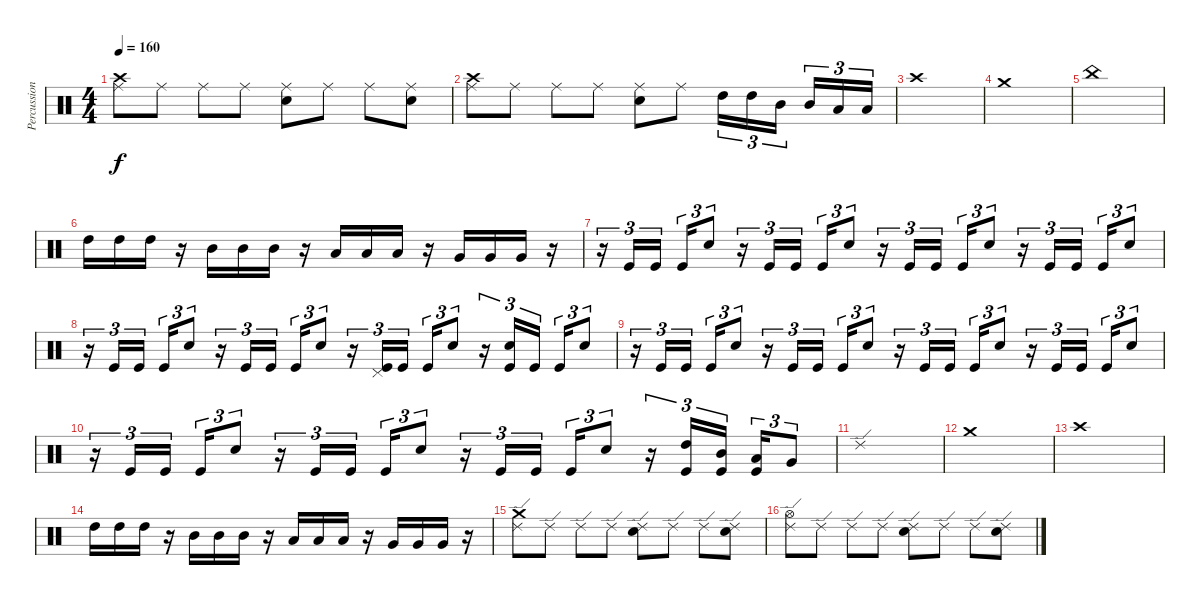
\track ("Percussion" "Percussion") {instrument percussion}
\staff {score}
\articulation defaults
\ts (4 4)
\tempo 160
\clef neutral
\ks c
("Crash high (hit)" "Ride (middle)").8{dy f} "Ride (middle)".8 "Ride (middle)".8 "Ride (middle)".8 ("Snare (hit) 2" "Ride (middle)").8 "Ride (middle)".8 "Ride (middle)".8 ("Snare (hit) 2" "Ride (middle)").8 |
("Crash high (hit)" "Ride (middle)").8 "Ride (middle)".8 "Ride (middle)".8 "Ride (middle)".8 ("Snare (hit) 2" "Ride (middle)").8 "Ride (middle)".8 "High Tom (hit)".16{tu (3 2)} "High Tom (hit)".16{tu (3 2)} "Mid Tom (hit)".16{tu (3 2)} "Mid Tom (hit)".16{tu (3 2)} "Low Tom (hit)".16{tu (3 2)} "Low Tom (hit)".16{tu (3 2)} |
"Crash high (hit)".1 |
"Crash medium (hit)".1 |
"China (hit)".1 |
"High Tom (hit)".16 "High Tom (hit)".16 "High Tom (hit)".16 r.16 "Mid Tom (hit)".16 "Mid Tom (hit)".16 "Mid Tom (hit)".16 r.16 "Low Tom (hit)".16 "Low Tom (hit)".16 "Low Tom (hit)".16 r.16 "Very Low Tom (hit)".16 "Very Low Tom (hit)".16 "Very Low Tom (hit)".16 r.16 |
r.16{tu (3 2)} "Kick (hit)".16{tu (3 2)} "Kick (hit)".16{tu (3 2)} "Kick (hit)".16{tu (3 2)} "Snare (hit) 2".8{tu (3 2)} r.16{tu (3 2)} "Kick (hit)".16{tu (3 2)} "Kick (hit)".16{tu (3 2)} "Kick (hit)".16{tu (3 2)} "Snare (hit) 2".8{tu (3 2)} r.16{tu (3 2)} "Kick (hit)".16{tu (3 2)} "Kick (hit)".16{tu (3 2)} "Kick (hit)".16{tu (3 2)} "Snare (hit) 2".8{tu (3 2)} r.16{tu (3 2)} "Kick (hit)".16{tu (3 2)} "Kick (hit)".16{tu (3 2)} "Kick (hit)".16{tu (3 2)} "Snare (hit) 2".8{tu (3 2)} |
r.16{tu (3 2)} "Kick (hit)".16{tu (3 2)} "Kick (hit)".16{tu (3 2)} "Kick (hit)".16{tu (3 2)} "Snare (hit) 2".8{tu (3 2)} r.16{tu (3 2)} "Kick (hit)".16{tu (3 2)} "Kick (hit)".16{tu (3 2)} "Kick (hit)".16{tu (3 2)} "Snare (hit) 2".8{tu (3 2)} r.16{tu (3 2)} ("Pedal Hi-Hat (hit)" "Kick (hit)").16{tu (3 2)} "Kick (hit)".16{tu (3 2)} "Kick (hit)".16{tu (3 2)} "Snare (hit) 2".8{tu (3 2)} r.16{tu (3 2)} ("Snare (hit) 2" "Kick (hit)").16{tu (3 2)} "Kick (hit)".16{tu (3 2)} "Kick (hit)".16{tu (3 2)} "Snare (hit) 2".8{tu (3 2)} |
r.16{tu (3 2)} "Kick (hit)".16{tu (3 2)} "Kick (hit)".16{tu (3 2)} "Kick (hit)".16{tu (3 2)} "Snare (hit) 2".8{tu (3 2)} r.16{tu (3 2)} "Kick (hit)".16{tu (3 2)} "Kick (hit)".16{tu (3 2)} "Kick (hit)".16{tu (3 2)} "Snare (hit) 2".8{tu (3 2)} r.16{tu (3 2)} "Kick (hit)".16{tu (3 2)} "Kick (hit)".16{tu (3 2)} "Kick (hit)".16{tu (3 2)} "Snare (hit) 2".8{tu (3 2)} r.16{tu (3 2)} "Kick (hit)".16{tu (3 2)} "Kick (hit)".16{tu (3 2)} "Kick (hit)".16{tu (3 2)} "Snare (hit) 2".8{tu (3 2)} |
r.16{tu (3 2)} "Kick (hit)".16{tu (3 2)} "Kick (hit)".16{tu (3 2)} "Kick (hit)".16{tu (3 2)} "Snare (hit) 2".8{tu (3 2)} r.16{tu (3 2)} "Kick (hit)".16{tu (3 2)} "Kick (hit)".16{tu (3 2)} "Kick (hit)".16{tu (3 2)} "Snare (hit) 2".8{tu (3 2)} r.16{tu (3 2)} "Kick (hit)".16{tu (3 2)} "Kick (hit)".16{tu (3 2)} "Kick (hit)".16{tu (3 2)} "Snare (hit) 2".8{tu (3 2)} r.16{tu (3 2)} ("Kick (hit)" "High Tom (hit)").16{tu (3 2)} ("Kick (hit)" "Mid Tom (hit)").16{tu (3 2)} ("Kick (hit)" "Low Tom (hit)").16{tu (3 2)} "Very Low Tom (hit)".8{tu (3 2)} |
"Ride (edge) 2".1 |
"Crash medium (hit)".1 |
"Crash high (hit)".1 |
"High Tom (hit)".16 "High Tom (hit)".16 "High Tom (hit)".16 r.16 "Mid Tom (hit)".16 "Mid Tom (hit)".16 "Mid Tom (hit)".16 r.16 "Low Tom (hit)".16 "Low Tom (hit)".16 "Low Tom (hit)".16 r.16 "Very Low Tom (hit)".16 "Very Low Tom (hit)".16 "Very Low Tom (hit)".16 r.16 |
("Crash medium (hit)" "Ride (edge) 2").8 "Ride (edge) 2".8 "Ride (edge) 2".8 "Ride (edge) 2".8 ("Snare (hit) 2" "Ride (edge) 2").8 "Ride (edge) 2".8 "Ride (edge) 2".8 ("Snare (hit) 2" "Ride (edge) 2").8 |
("Hi-Hat (open)" "Ride (edge) 2").8 "Ride (edge) 2".8 "Ride (edge) 2".8 "Ride (edge) 2".8 ("Snare (hit) 2" "Ride (edge) 2").8 "Ride (edge) 2".8 "Ride (edge) 2".8 ("Snare (hit) 2" "Ride (edge) 2").8
